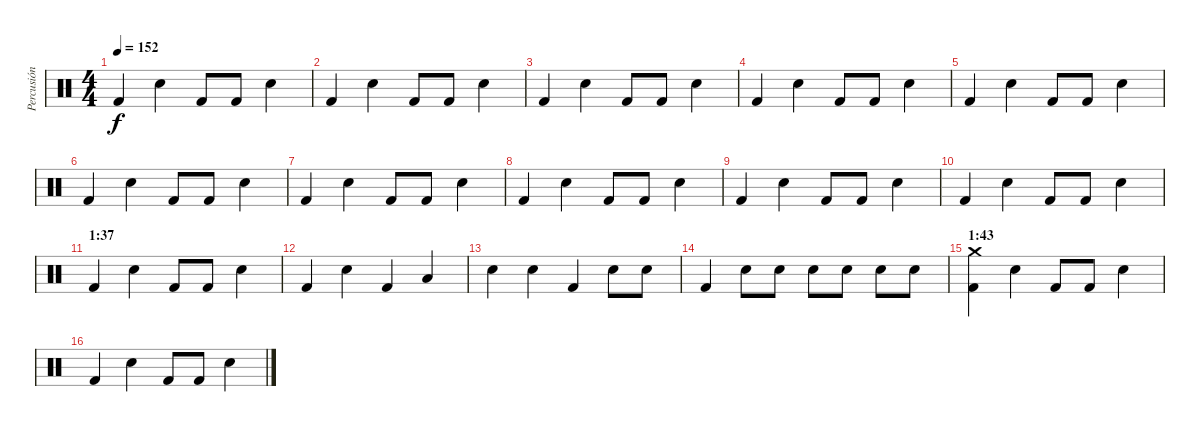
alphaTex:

\track ("Percusión" "Percusión") {instrument percussion}
\staff {score}
\articulation defaults
\ts (4 4)
\tempo 152
\clef neutral
\ks c "Kick (hit) 2".4{dy f} "Snare (hit) 2".4 "Kick (hit) 2".8 "Kick (hit) 2".8 "Snare (hit) 2".4
|
"Kick (hit) 2".4 "Snare (hit) 2".4 "Kick (hit) 2".8 "Kick (hit) 2".8 "Snare (hit) 2".4 |
"Kick (hit) 2".4 "Snare (hit) 2".4 "Kick (hit) 2".8 "Kick (hit) 2".8 "Snare (hit) 2".4 |
"Kick (hit) 2".4 "Snare (hit) 2".4 "Kick (hit) 2".8 "Kick (hit) 2".8 "Snare (hit) 2".4 |
"Kick (hit) 2".4 "Snare (hit) 2".4 "Kick (hit) 2".8 "Kick (hit) 2".8 "Snare (hit) 2".4 |
"Kick (hit) 2".4 "Snare (hit) 2".4 "Kick (hit) 2".8 "Kick (hit) 2".8 "Snare (hit) 2".4 |
"Kick (hit) 2".4 "Snare (hit) 2".4 "Kick (hit) 2".8 "Kick (hit) 2".8 "Snare (hit) 2".4 |
"Kick (hit) 2".4 "Snare (hit) 2".4 "Kick (hit) 2".8 "Kick (hit) 2".8 "Snare (hit) 2".4 |
"Kick (hit) 2".4 "Snare (hit) 2".4 "Kick (hit) 2".8 "Kick (hit) 2".8 "Snare (hit) 2".4 |
"Kick (hit) 2".4 "Snare (hit) 2".4 "Kick (hit) 2".8 "Kick (hit) 2".8 "Snare (hit) 2".4 |
\section ("" "1:37")
"Kick (hit) 2".4 "Snare (hit) 2".4 "Kick (hit) 2".8 "Kick (hit) 2".8 "Snare (hit) 2".4 |
"Kick (hit) 2".4 "Snare (hit) 2".4 "Kick (hit) 2".4 "Low Tom (hit)".4 |
"Snare (hit) 2".4 "Snare (hit) 2".4 "Kick (hit) 2".4 "Snare (hit) 2".8 "Snare (hit) 2".8 |
"Kick (hit) 2".4 "Snare (hit) 2".8 "Snare (hit) 2".8 "Snare (hit) 2".8 "Snare (hit) 2".8 "Snare (hit) 2".8 "Snare (hit) 2".8 |
\section ("" "1:43")
("Kick (hit) 2" "Crash medium (hit)").4 "Snare (hit) 2".4 "Kick (hit) 2".8 "Kick (hit) 2".8 "Snare (hit) 2".4 |
"Kick (hit) 2".4 "Snare (hit) 2".4 "Kick (hit) 2".8 "Kick (hit) 2".8 "Snare (hit) 2".4
